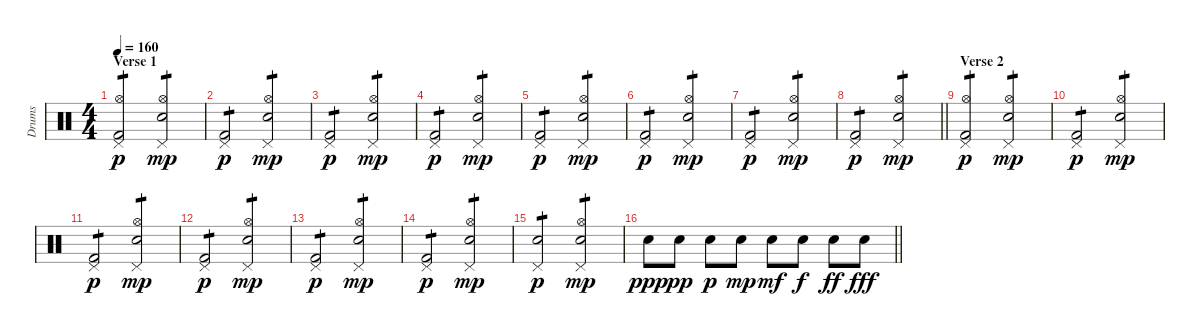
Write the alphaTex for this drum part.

\track ("Drums" "Drums") {instrument percussion}
\staff {score}
\articulation defaults
\ts (4 4)
\section ("" "Verse 1")
\tempo 160
\clef neutral
\ks c
("Pedal Hi-Hat (hit)" "Hi-Hat (open)" "Kick (hit) 2").2{tp 1 dy p} ("Pedal Hi-Hat (hit)" "Hi-Hat (open)" "Snare (hit) 2").2{tp 1 dy mp} |
("Pedal Hi-Hat (hit)" "Kick (hit) 2").2{tp 1 dy p} ("Pedal Hi-Hat (hit)" "Hi-Hat (open)" "Snare (hit) 2").2{tp 1 dy mp} |
("Pedal Hi-Hat (hit)" "Kick (hit) 2").2{tp 1 dy p} ("Pedal Hi-Hat (hit)" "Hi-Hat (open)" "Snare (hit) 2").2{tp 1 dy mp} |
("Pedal Hi-Hat (hit)" "Kick (hit) 2").2{tp 1 dy p} ("Pedal Hi-Hat (hit)" "Hi-Hat (open)" "Snare (hit) 2").2{tp 1 dy mp} |
("Pedal Hi-Hat (hit)" "Kick (hit) 2").2{tp 1 dy p} ("Pedal Hi-Hat (hit)" "Hi-Hat (open)" "Snare (hit) 2").2{tp 1 dy mp} |
("Pedal Hi-Hat (hit)" "Kick (hit) 2").2{tp 1 dy p} ("Pedal Hi-Hat (hit)" "Hi-Hat (open)" "Snare (hit) 2").2{tp 1 dy mp} |
("Pedal Hi-Hat (hit)" "Kick (hit) 2").2{tp 1 dy p} ("Pedal Hi-Hat (hit)" "Hi-Hat (open)" "Snare (hit) 2").2{tp 1 dy mp} |
\barLineRight lightlight
("Pedal Hi-Hat (hit)" "Kick (hit) 2").2{tp 1 dy p} ("Pedal Hi-Hat (hit)" "Hi-Hat (open)" "Snare (hit) 2").2{tp 1 dy mp} |
\section ("" "Verse 2")
("Pedal Hi-Hat (hit)" "Hi-Hat (open)" "Kick (hit) 2").2{tp 1 dy p} ("Pedal Hi-Hat (hit)" "Hi-Hat (open)" "Snare (hit) 2").2{tp 1 dy mp} |
("Pedal Hi-Hat (hit)" "Kick (hit) 2").2{tp 1 dy p} ("Pedal Hi-Hat (hit)" "Hi-Hat (open)" "Snare (hit) 2").2{tp 1 dy mp} |
("Pedal Hi-Hat (hit)" "Kick (hit) 2").2{tp 1 dy p} ("Pedal Hi-Hat (hit)" "Hi-Hat (open)" "Snare (hit) 2").2{tp 1 dy mp} |
("Pedal Hi-Hat (hit)" "Kick (hit) 2").2{tp 1 dy p} ("Pedal Hi-Hat (hit)" "Hi-Hat (open)" "Snare (hit) 2").2{tp 1 dy mp} |
("Pedal Hi-Hat (hit)" "Kick (hit) 2").2{tp 1 dy p} ("Pedal Hi-Hat (hit)" "Hi-Hat (open)" "Snare (hit) 2").2{tp 1 dy mp} |
("Pedal Hi-Hat (hit)" "Kick (hit) 2").2{tp 1 dy p} ("Pedal Hi-Hat (hit)" "Hi-Hat (open)" "Snare (hit) 2").2{tp 1 dy mp} |
("Pedal Hi-Hat (hit)" "Snare (hit) 2").2{tp 1 dy p} ("Pedal Hi-Hat (hit)" "Hi-Hat (open)" "Snare (hit) 2").2{tp 1 dy mp} |
\barLineRight lightlight "Snare (hit) 2".8{dy ppp} "Snare (hit) 2".8{dy pp} "Snare (hit) 2".8{dy p} "Snare (hit) 2".8{dy mp} "Snare (hit) 2".8{dy mf} "Snare (hit) 2".8{dy f} "Snare (hit) 2".8{dy ff} "Snare (hit) 2".8{dy fff}
